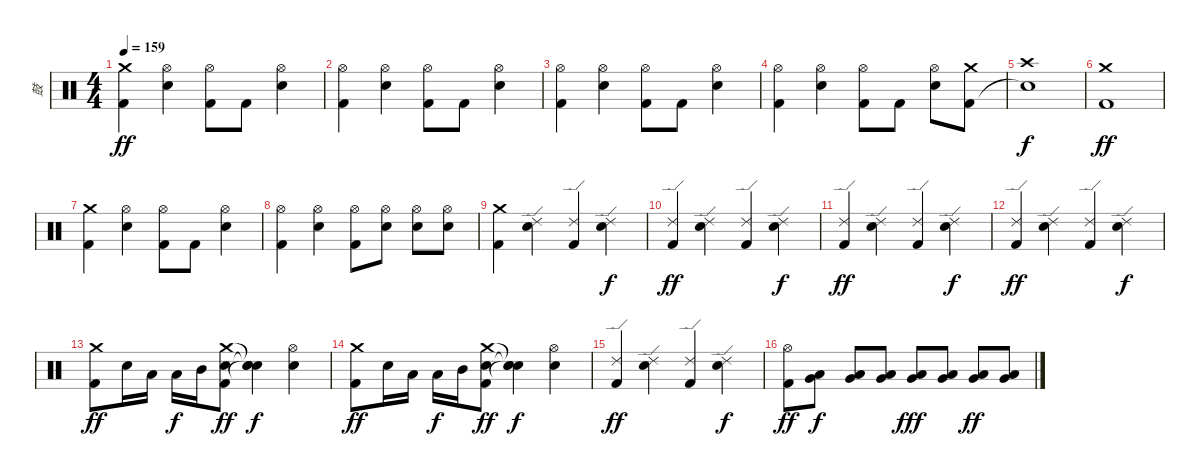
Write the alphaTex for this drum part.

\track ("鼓" "鼓") {instrument percussion}
\staff {score}
\articulation defaults
\ts (4 4)
\tempo 159
\clef neutral
\ks c
("Crash medium (hit)" "Kick (hit) 2").4{dy ff} ("Hi-Hat (open)" "Electric Snare (hit)").4 ("Hi-Hat (open)" "Kick (hit) 2").8 "Kick (hit) 2".8 ("Hi-Hat (open)" "Electric Snare (hit)").4 |
("Hi-Hat (open)" "Kick (hit) 2").4 ("Hi-Hat (open)" "Electric Snare (hit)").4 ("Hi-Hat (open)" "Kick (hit) 2").8 "Kick (hit) 2".8 ("Hi-Hat (open)" "Electric Snare (hit)").4 |
("Hi-Hat (open)" "Kick (hit) 2").4 ("Hi-Hat (open)" "Electric Snare (hit)").4 ("Hi-Hat (open)" "Kick (hit) 2").8 "Kick (hit) 2".8 ("Hi-Hat (open)" "Electric Snare (hit)").4 |
("Hi-Hat (open)" "Kick (hit) 2").4 ("Hi-Hat (open)" "Electric Snare (hit)").4 ("Hi-Hat (open)" "Kick (hit) 2").8 "Kick (hit) 2".8 ("Hi-Hat (open)" "Electric Snare (hit)").8 ("Crash medium (hit)" "Kick (hit) 2").8 |
("Crash high (hit)" "Snare (hit)"{t}).1{dy f} |
("Crash medium (hit)" "Kick (hit) 2").1{dy ff} |
("Crash medium (hit)" "Kick (hit) 2").4 ("Hi-Hat (open)" "Electric Snare (hit)").4 ("Hi-Hat (open)" "Kick (hit) 2").8 "Kick (hit) 2".8 ("Hi-Hat (open)" "Electric Snare (hit)").4 |
("Hi-Hat (open)" "Kick (hit) 2").4 ("Hi-Hat (open)" "Electric Snare (hit)").4 ("Hi-Hat (open)" "Kick (hit) 2").8 ("Hi-Hat (open)" "Electric Snare (hit)").8 ("Hi-Hat (open)" "Electric Snare (hit)").8 ("Hi-Hat (open)" "Electric Snare (hit)").8 |
("Crash medium (hit)" "Kick (hit) 2").4 ("Ride (edge) 2" "Electric Snare (hit)").4 ("Ride (edge) 2" "Kick (hit) 2").4 ("Ride (edge) 2" "Electric Snare (hit)").4{dy f} |
("Ride (edge) 2" "Kick (hit) 2").4{dy ff} ("Ride (edge) 2" "Electric Snare (hit)").4 ("Ride (edge) 2" "Kick (hit) 2").4 ("Ride (edge) 2" "Electric Snare (hit)").4{dy f} |
("Ride (edge) 2" "Kick (hit) 2").4{dy ff} ("Ride (edge) 2" "Electric Snare (hit)").4 ("Ride (edge) 2" "Kick (hit) 2").4 ("Ride (edge) 2" "Electric Snare (hit)").4{dy f} |
("Ride (edge) 2" "Kick (hit) 2").4{dy ff} ("Ride (edge) 2" "Electric Snare (hit)").4 ("Ride (edge) 2" "Kick (hit) 2").4 ("Ride (edge) 2" "Electric Snare (hit)").4{dy f} |
("Crash medium (hit)" "Kick (hit) 2").8{dy ff} "Electric Snare (hit)".16 "Low Tom (hit)".16 "Low Tom (hit)".16{dy f} "Mid Tom (hit)".16 ("Crash medium (hit)" "Electric Snare (hit)" "Kick (hit) 2").8{dy ff} ("Snare (hit)"{t} "Snare (hit)"{t} "Snare (hit)"{t}).4{dy f} ("Hi-Hat (open)" "Electric Snare (hit)").4 |
("Crash medium (hit)" "Kick (hit) 2").8{dy ff} "Electric Snare (hit)".16 "Low Tom (hit)".16 "Low Tom (hit)".16{dy f} "Mid Tom (hit)".16 ("Crash medium (hit)" "Electric Snare (hit)" "Kick (hit) 2").8{dy ff} ("Snare (hit)"{t} "Snare (hit)"{t} "Snare (hit)"{t}).4{dy f} ("Hi-Hat (open)" "Electric Snare (hit)").4 |
("Ride (edge) 2" "Kick (hit) 2").4{dy ff} ("Ride (edge) 2" "Electric Snare (hit)").4 ("Ride (edge) 2" "Kick (hit) 2").4 ("Ride (edge) 2" "Electric Snare (hit)").4{dy f} |
("Hi-Hat (open)" "Kick (hit) 2").8{dy ff} ("Very Low Tom (hit)" "Low Tom (hit)").8{dy f} ("Very Low Tom (hit)" "Low Tom (hit)").8 ("Very Low Tom (hit)" "Low Tom (hit)").8 ("Very Low Tom (hit)" "Low Tom (hit)").8{dy fff} ("Very Low Tom (hit)" "Low Tom (hit)").8 ("Very Low Tom (hit)" "Low Tom (hit)").8{dy ff} ("Very Low Tom (hit)" "Low Tom (hit)").8
